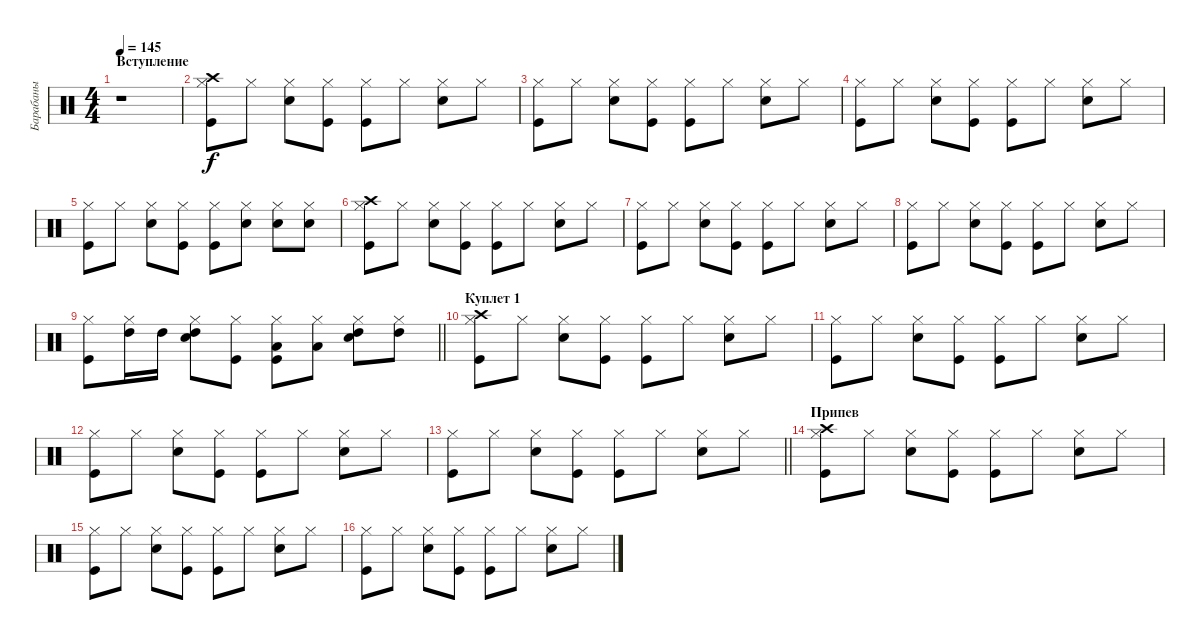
\track ("Барабаны" "Барабаны") {instrument percussion}
\staff {score}
\articulation defaults
\ts (4 4)
\section ("" "Вступление")
\tempo 145
\clef neutral
\ks c
r.1{dy f} |
("Kick (hit)" "Hi-Hat (closed)" "Crash high (hit)").8 "Hi-Hat (closed)".8 ("Snare (hit) 2" "Hi-Hat (closed)").8 ("Kick (hit)" "Hi-Hat (closed)").8 ("Kick (hit)" "Hi-Hat (closed)").8 "Hi-Hat (closed)".8 ("Snare (hit) 2" "Hi-Hat (closed)").8 "Hi-Hat (closed)".8 |
("Kick (hit)" "Hi-Hat (closed)").8 "Hi-Hat (closed)".8 ("Snare (hit) 2" "Hi-Hat (closed)").8 ("Kick (hit)" "Hi-Hat (closed)").8 ("Kick (hit)" "Hi-Hat (closed)").8 "Hi-Hat (closed)".8 ("Snare (hit) 2" "Hi-Hat (closed)").8 "Hi-Hat (closed)".8 |
("Kick (hit)" "Hi-Hat (closed)").8 "Hi-Hat (closed)".8 ("Snare (hit) 2" "Hi-Hat (closed)").8 ("Kick (hit)" "Hi-Hat (closed)").8 ("Kick (hit)" "Hi-Hat (closed)").8 "Hi-Hat (closed)".8 ("Snare (hit) 2" "Hi-Hat (closed)").8 "Hi-Hat (closed)".8 |
("Kick (hit)" "Hi-Hat (closed)").8 "Hi-Hat (closed)".8 ("Snare (hit) 2" "Hi-Hat (closed)").8 ("Kick (hit)" "Hi-Hat (closed)").8 ("Kick (hit)" "Hi-Hat (closed)").8 ("Snare (hit) 2" "Hi-Hat (closed)").8 ("Snare (hit) 2" "Hi-Hat (closed)").8 ("Snare (hit) 2" "Hi-Hat (closed)").8 |
("Kick (hit)" "Hi-Hat (closed)" "Crash high (hit)").8 "Hi-Hat (closed)".8 ("Snare (hit) 2" "Hi-Hat (closed)").8 ("Kick (hit)" "Hi-Hat (closed)").8 ("Kick (hit)" "Hi-Hat (closed)").8 "Hi-Hat (closed)".8 ("Snare (hit) 2" "Hi-Hat (closed)").8 "Hi-Hat (closed)".8 |
("Kick (hit)" "Hi-Hat (closed)").8 "Hi-Hat (closed)".8 ("Snare (hit) 2" "Hi-Hat (closed)").8 ("Kick (hit)" "Hi-Hat (closed)").8 ("Kick (hit)" "Hi-Hat (closed)").8 "Hi-Hat (closed)".8 ("Snare (hit) 2" "Hi-Hat (closed)").8 "Hi-Hat (closed)".8 |
("Kick (hit)" "Hi-Hat (closed)").8 "Hi-Hat (closed)".8 ("Snare (hit) 2" "Hi-Hat (closed)").8 ("Kick (hit)" "Hi-Hat (closed)").8 ("Kick (hit)" "Hi-Hat (closed)").8 "Hi-Hat (closed)".8 ("Snare (hit) 2" "Hi-Hat (closed)").8 "Hi-Hat (closed)".8 |
\barLineRight lightlight
("Kick (hit)" "Hi-Hat (closed)").8 ("Hi-Hat (closed)" "High Tom (hit)").16 "High Tom (hit)".16 ("Snare (hit) 2" "Hi-Hat (closed)" "High Tom (hit)").8 ("Kick (hit)" "Hi-Hat (closed)").8 ("Kick (hit)" "Hi-Hat (closed)" "Low Tom (hit)").8 ("Hi-Hat (closed)" "Low Tom (hit)").8 ("Snare (hit) 2" "Hi-Hat (closed)" "High Tom (hit)").8 ("Hi-Hat (closed)" "High Tom (hit)").8 |
\section ("" "Куплет 1")
("Kick (hit)" "Hi-Hat (closed)" "Crash high (hit)").8 "Hi-Hat (closed)".8 ("Snare (hit) 2" "Hi-Hat (closed)").8 ("Kick (hit)" "Hi-Hat (closed)").8 ("Kick (hit)" "Hi-Hat (closed)").8 "Hi-Hat (closed)".8 ("Snare (hit) 2" "Hi-Hat (closed)").8 "Hi-Hat (closed)".8 |
("Kick (hit)" "Hi-Hat (closed)").8 "Hi-Hat (closed)".8 ("Snare (hit) 2" "Hi-Hat (closed)").8 ("Kick (hit)" "Hi-Hat (closed)").8 ("Kick (hit)" "Hi-Hat (closed)").8 "Hi-Hat (closed)".8 ("Snare (hit) 2" "Hi-Hat (closed)").8 "Hi-Hat (closed)".8 |
("Kick (hit)" "Hi-Hat (closed)").8 "Hi-Hat (closed)".8 ("Snare (hit) 2" "Hi-Hat (closed)").8 ("Kick (hit)" "Hi-Hat (closed)").8 ("Kick (hit)" "Hi-Hat (closed)").8 "Hi-Hat (closed)".8 ("Snare (hit) 2" "Hi-Hat (closed)").8 "Hi-Hat (closed)".8 |
\barLineRight lightlight
("Kick (hit)" "Hi-Hat (closed)").8 "Hi-Hat (closed)".8 ("Snare (hit) 2" "Hi-Hat (closed)").8 ("Kick (hit)" "Hi-Hat (closed)").8 ("Kick (hit)" "Hi-Hat (closed)").8 "Hi-Hat (closed)".8 ("Snare (hit) 2" "Hi-Hat (closed)").8 "Hi-Hat (closed)".8 |
\section ("" "Припев")
("Kick (hit)" "Hi-Hat (closed)" "Crash high (hit)").8 "Hi-Hat (closed)".8 ("Snare (hit) 2" "Hi-Hat (closed)").8 ("Kick (hit)" "Hi-Hat (closed)").8 ("Kick (hit)" "Hi-Hat (closed)").8 "Hi-Hat (closed)".8 ("Snare (hit) 2" "Hi-Hat (closed)").8 "Hi-Hat (closed)".8 |
("Kick (hit)" "Hi-Hat (closed)").8 "Hi-Hat (closed)".8 ("Snare (hit) 2" "Hi-Hat (closed)").8 ("Kick (hit)" "Hi-Hat (closed)").8 ("Kick (hit)" "Hi-Hat (closed)").8 "Hi-Hat (closed)".8 ("Snare (hit) 2" "Hi-Hat (closed)").8 "Hi-Hat (closed)".8 |
("Kick (hit)" "Hi-Hat (closed)").8 "Hi-Hat (closed)".8 ("Snare (hit) 2" "Hi-Hat (closed)").8 ("Kick (hit)" "Hi-Hat (closed)").8 ("Kick (hit)" "Hi-Hat (closed)").8 "Hi-Hat (closed)".8 ("Snare (hit) 2" "Hi-Hat (closed)").8 "Hi-Hat (closed)".8
